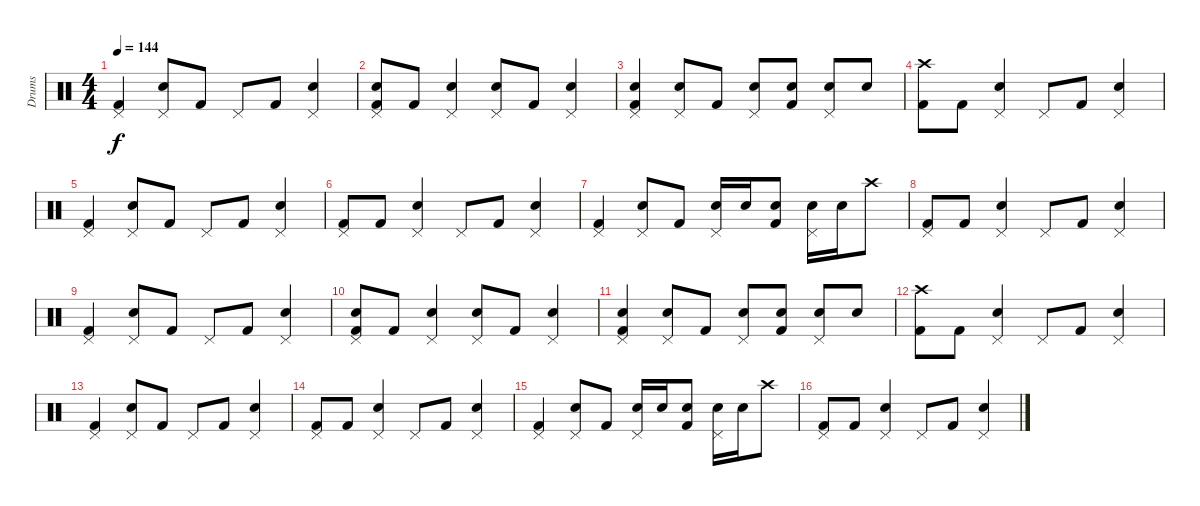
\track ("Drums" "Drums") {instrument percussion}
\staff {score}
\articulation defaults
\ts (4 4)
\tempo 144
\clef neutral
\ks c
("Kick (hit) 2" "Pedal Hi-Hat (hit)").4{dy f} ("Electric Snare (hit)" "Pedal Hi-Hat (hit)").8 "Kick (hit) 2".8 "Pedal Hi-Hat (hit)".8 "Kick (hit) 2".8 ("Electric Snare (hit)" "Pedal Hi-Hat (hit)").4 |
("Electric Snare (hit)" "Pedal Hi-Hat (hit)" "Kick (hit) 2").8 "Kick (hit) 2".8 ("Pedal Hi-Hat (hit)" "Electric Snare (hit)").4 ("Electric Snare (hit)" "Pedal Hi-Hat (hit)").8 "Kick (hit) 2".8 ("Pedal Hi-Hat (hit)" "Electric Snare (hit)").4 |
("Electric Snare (hit)" "Kick (hit) 2" "Pedal Hi-Hat (hit)").4 ("Electric Snare (hit)" "Pedal Hi-Hat (hit)").8 "Kick (hit) 2".8 ("Electric Snare (hit)" "Pedal Hi-Hat (hit)").8 ("Electric Snare (hit)" "Kick (hit) 2").8 ("Electric Snare (hit)" "Pedal Hi-Hat (hit)").8 "Electric Snare (hit)".8 |
("Crash high (hit)" "Kick (hit) 2").8 "Kick (hit) 2".8 ("Pedal Hi-Hat (hit)" "Electric Snare (hit)").4 "Pedal Hi-Hat (hit)".8 "Kick (hit) 2".8 ("Pedal Hi-Hat (hit)" "Electric Snare (hit)").4 |
("Kick (hit) 2" "Pedal Hi-Hat (hit)").4 ("Electric Snare (hit)" "Pedal Hi-Hat (hit)").8 "Kick (hit) 2".8 "Pedal Hi-Hat (hit)".8 "Kick (hit) 2".8 ("Electric Snare (hit)" "Pedal Hi-Hat (hit)").4 |
("Pedal Hi-Hat (hit)" "Kick (hit) 2").8 "Kick (hit) 2".8 ("Pedal Hi-Hat (hit)" "Electric Snare (hit)").4 "Pedal Hi-Hat (hit)".8 "Kick (hit) 2".8 ("Pedal Hi-Hat (hit)" "Electric Snare (hit)").4 |
("Kick (hit) 2" "Pedal Hi-Hat (hit)").4 ("Electric Snare (hit)" "Pedal Hi-Hat (hit)").8 "Kick (hit) 2".8 ("Electric Snare (hit)" "Pedal Hi-Hat (hit)").16 "Electric Snare (hit)".16 ("Electric Snare (hit)" "Kick (hit) 2").8 ("Electric Snare (hit)" "Pedal Hi-Hat (hit)").16 "Electric Snare (hit)".16 "Crash high (hit)".8 |
("Pedal Hi-Hat (hit)" "Kick (hit) 2").8 "Kick (hit) 2".8 ("Pedal Hi-Hat (hit)" "Electric Snare (hit)").4 "Pedal Hi-Hat (hit)".8 "Kick (hit) 2".8 ("Pedal Hi-Hat (hit)" "Electric Snare (hit)").4 |
("Kick (hit) 2" "Pedal Hi-Hat (hit)").4 ("Electric Snare (hit)" "Pedal Hi-Hat (hit)").8 "Kick (hit) 2".8 "Pedal Hi-Hat (hit)".8 "Kick (hit) 2".8 ("Electric Snare (hit)" "Pedal Hi-Hat (hit)").4 |
("Electric Snare (hit)" "Pedal Hi-Hat (hit)" "Kick (hit) 2").8 "Kick (hit) 2".8 ("Pedal Hi-Hat (hit)" "Electric Snare (hit)").4 ("Electric Snare (hit)" "Pedal Hi-Hat (hit)").8 "Kick (hit) 2".8 ("Pedal Hi-Hat (hit)" "Electric Snare (hit)").4 |
("Electric Snare (hit)" "Kick (hit) 2" "Pedal Hi-Hat (hit)").4 ("Electric Snare (hit)" "Pedal Hi-Hat (hit)").8 "Kick (hit) 2".8 ("Electric Snare (hit)" "Pedal Hi-Hat (hit)").8 ("Electric Snare (hit)" "Kick (hit) 2").8 ("Electric Snare (hit)" "Pedal Hi-Hat (hit)").8 "Electric Snare (hit)".8 |
("Crash high (hit)" "Kick (hit) 2").8 "Kick (hit) 2".8 ("Pedal Hi-Hat (hit)" "Electric Snare (hit)").4 "Pedal Hi-Hat (hit)".8 "Kick (hit) 2".8 ("Pedal Hi-Hat (hit)" "Electric Snare (hit)").4 |
("Kick (hit) 2" "Pedal Hi-Hat (hit)").4 ("Electric Snare (hit)" "Pedal Hi-Hat (hit)").8 "Kick (hit) 2".8 "Pedal Hi-Hat (hit)".8 "Kick (hit) 2".8 ("Electric Snare (hit)" "Pedal Hi-Hat (hit)").4 |
("Pedal Hi-Hat (hit)" "Kick (hit) 2").8 "Kick (hit) 2".8 ("Pedal Hi-Hat (hit)" "Electric Snare (hit)").4 "Pedal Hi-Hat (hit)".8 "Kick (hit) 2".8 ("Pedal Hi-Hat (hit)" "Electric Snare (hit)").4 |
("Kick (hit) 2" "Pedal Hi-Hat (hit)").4 ("Electric Snare (hit)" "Pedal Hi-Hat (hit)").8 "Kick (hit) 2".8 ("Electric Snare (hit)" "Pedal Hi-Hat (hit)").16 "Electric Snare (hit)".16 ("Electric Snare (hit)" "Kick (hit) 2").8 ("Electric Snare (hit)" "Pedal Hi-Hat (hit)").16 "Electric Snare (hit)".16 "Crash high (hit)".8 |
("Pedal Hi-Hat (hit)" "Kick (hit) 2").8 "Kick (hit) 2".8 ("Pedal Hi-Hat (hit)" "Electric Snare (hit)").4 "Pedal Hi-Hat (hit)".8 "Kick (hit) 2".8 ("Pedal Hi-Hat (hit)" "Electric Snare (hit)").4
